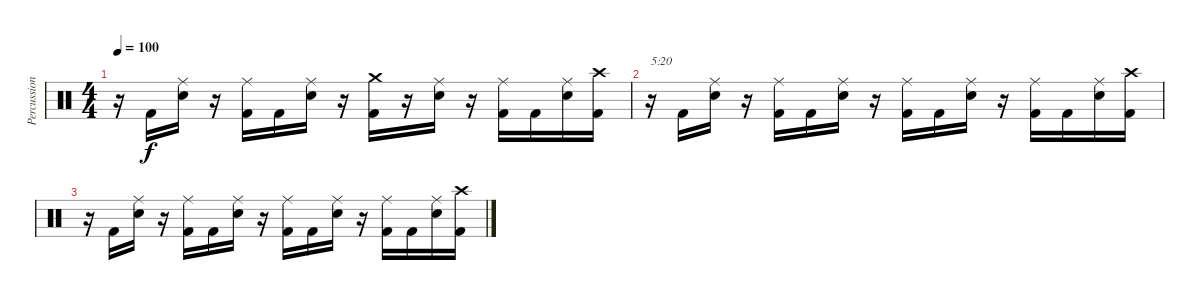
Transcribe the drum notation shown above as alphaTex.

\track ("Percussion" "Percussion") {instrument percussion}
\staff {score}
\articulation defaults
\ts (4 4)
\tempo 100
\clef neutral
\ks c
r.16{dy f} "Kick (hit) 2".16 ("Ride (middle)" "Electric Snare (hit)").16 r.16 ("Ride (middle)" "Kick (hit) 2").16 "Kick (hit) 2".16 ("Ride (middle)" "Electric Snare (hit)").16 r.16 ("Crash medium (hit)" "Kick (hit) 2").16 r.16 ("Ride (middle)" "Electric Snare (hit)").16 r.16 ("Ride (middle)" "Kick (hit) 2").16 "Kick (hit) 2".16 ("Ride (middle)" "Electric Snare (hit)").16 ("Crash high (hit)" "Kick (hit) 2").16 |
r.16{txt "5:20"} "Kick (hit) 2".16 ("Ride (middle)" "Electric Snare (hit)").16 r.16 ("Ride (middle)" "Kick (hit) 2").16 "Kick (hit) 2".16 ("Ride (middle)" "Electric Snare (hit)").16 r.16 ("Ride (middle)" "Kick (hit) 2").16 "Kick (hit) 2".16 ("Ride (middle)" "Electric Snare (hit)").16 r.16 ("Ride (middle)" "Kick (hit) 2").16 "Kick (hit) 2".16 ("Ride (middle)" "Electric Snare (hit)").16 ("Crash high (hit)" "Kick (hit) 2").16 |
r.16 "Kick (hit) 2".16 ("Ride (middle)" "Electric Snare (hit)").16 r.16 ("Ride (middle)" "Kick (hit) 2").16 "Kick (hit) 2".16 ("Ride (middle)" "Electric Snare (hit)").16 r.16 ("Ride (middle)" "Kick (hit) 2").16 "Kick (hit) 2".16 ("Ride (middle)" "Electric Snare (hit)").16 r.16 ("Ride (middle)" "Kick (hit) 2").16 "Kick (hit) 2".16 ("Ride (middle)" "Electric Snare (hit)").16 ("Crash high (hit)" "Kick (hit) 2").16
